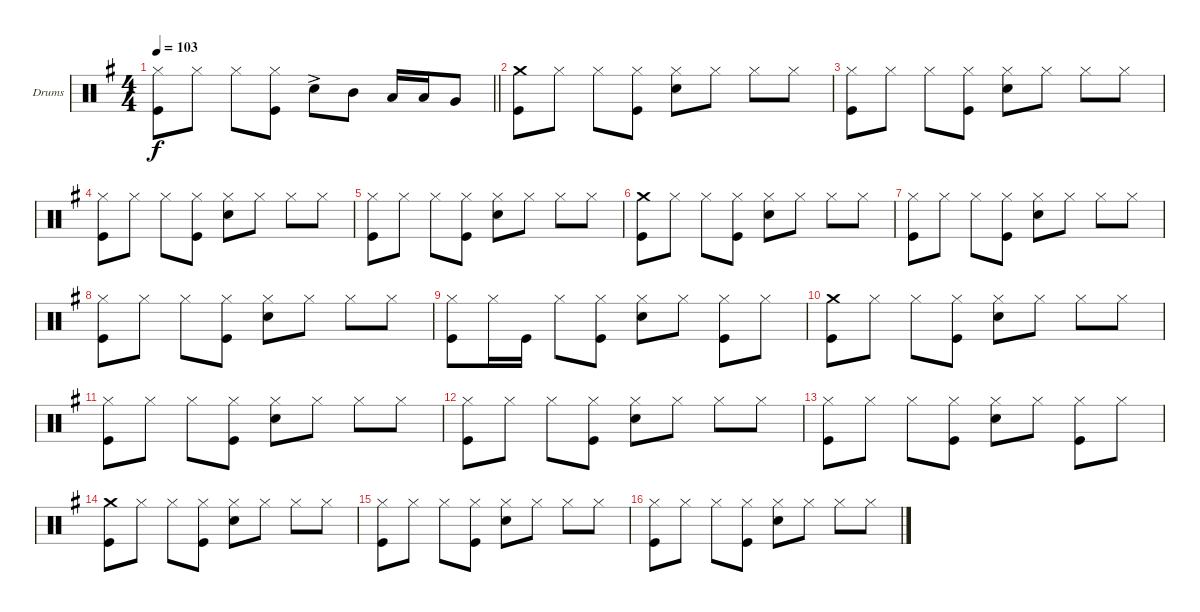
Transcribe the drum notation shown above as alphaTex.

\bracketExtendMode groupsimilarinstruments
\firstSystemTrackNameOrientation horizontal
\otherSystemsTrackNameOrientation horizontal
\track ("Drumkit" "Drums") {instrument percussion}
\staff {score}
\articulation defaults
\ts (4 4)
\tempo 103
\clef neutral
\barLineRight lightlight
\ks eminor
("Hi-Hat (closed)" "Kick (hit)").8{dy f} "Hi-Hat (closed)".8 "Hi-Hat (closed)".8 ("Hi-Hat (closed)" "Kick (hit)").8 "Snare (hit) 2"{ac}.8 "Mid Tom (hit)".8 "Low Tom (hit)".16 "Low Tom (hit)".16 "Very Low Tom (hit)".8 |
("Crash medium (hit)" "Kick (hit)").8 "Hi-Hat (closed)".8 "Hi-Hat (closed)".8 ("Hi-Hat (closed)" "Kick (hit)").8 ("Hi-Hat (closed)" "Snare (hit) 2").8 "Hi-Hat (closed)".8 "Hi-Hat (closed)".8 "Hi-Hat (closed)".8 |
("Hi-Hat (closed)" "Kick (hit)").8 "Hi-Hat (closed)".8 "Hi-Hat (closed)".8 ("Hi-Hat (closed)" "Kick (hit)").8 ("Hi-Hat (closed)" "Snare (hit) 2").8 "Hi-Hat (closed)".8 "Hi-Hat (closed)".8 "Hi-Hat (closed)".8 |
("Hi-Hat (closed)" "Kick (hit)").8 "Hi-Hat (closed)".8 "Hi-Hat (closed)".8 ("Hi-Hat (closed)" "Kick (hit)").8 ("Hi-Hat (closed)" "Snare (hit) 2").8 "Hi-Hat (closed)".8 "Hi-Hat (closed)".8 "Hi-Hat (closed)".8 |
("Hi-Hat (closed)" "Kick (hit)").8 "Hi-Hat (closed)".8 "Hi-Hat (closed)".8 ("Hi-Hat (closed)" "Kick (hit)").8 ("Hi-Hat (closed)" "Snare (hit) 2").8 "Hi-Hat (closed)".8 "Hi-Hat (closed)".8 "Hi-Hat (closed)".8 |
("Crash medium (hit)" "Kick (hit)").8 "Hi-Hat (closed)".8 "Hi-Hat (closed)".8 ("Hi-Hat (closed)" "Kick (hit)").8 ("Hi-Hat (closed)" "Snare (hit) 2").8 "Hi-Hat (closed)".8 "Hi-Hat (closed)".8 "Hi-Hat (closed)".8 |
("Hi-Hat (closed)" "Kick (hit)").8 "Hi-Hat (closed)".8 "Hi-Hat (closed)".8 ("Hi-Hat (closed)" "Kick (hit)").8 ("Hi-Hat (closed)" "Snare (hit) 2").8 "Hi-Hat (closed)".8 "Hi-Hat (closed)".8 "Hi-Hat (closed)".8 |
("Hi-Hat (closed)" "Kick (hit)").8 "Hi-Hat (closed)".8 "Hi-Hat (closed)".8 ("Hi-Hat (closed)" "Kick (hit)").8 ("Hi-Hat (closed)" "Snare (hit) 2").8 "Hi-Hat (closed)".8 "Hi-Hat (closed)".8 "Hi-Hat (closed)".8 |
("Hi-Hat (closed)" "Kick (hit)").8 "Hi-Hat (closed)".16 "Kick (hit)".16 "Hi-Hat (closed)".8 ("Hi-Hat (closed)" "Kick (hit)").8 ("Hi-Hat (closed)" "Snare (hit) 2").8 "Hi-Hat (closed)".8 ("Hi-Hat (closed)" "Kick (hit)").8 "Hi-Hat (closed)".8 |
("Crash medium (hit)" "Kick (hit)").8 "Hi-Hat (closed)".8 "Hi-Hat (closed)".8 ("Hi-Hat (closed)" "Kick (hit)").8 ("Hi-Hat (closed)" "Snare (hit) 2").8 "Hi-Hat (closed)".8 "Hi-Hat (closed)".8 "Hi-Hat (closed)".8 |
("Hi-Hat (closed)" "Kick (hit)").8 "Hi-Hat (closed)".8 "Hi-Hat (closed)".8 ("Hi-Hat (closed)" "Kick (hit)").8 ("Hi-Hat (closed)" "Snare (hit) 2").8 "Hi-Hat (closed)".8 "Hi-Hat (closed)".8 "Hi-Hat (closed)".8 |
("Hi-Hat (closed)" "Kick (hit)").8 "Hi-Hat (closed)".8 "Hi-Hat (closed)".8 ("Hi-Hat (closed)" "Kick (hit)").8 ("Hi-Hat (closed)" "Snare (hit) 2").8 "Hi-Hat (closed)".8 "Hi-Hat (closed)".8 "Hi-Hat (closed)".8 |
("Hi-Hat (closed)" "Kick (hit)").8 "Hi-Hat (closed)".8 "Hi-Hat (closed)".8 ("Hi-Hat (closed)" "Kick (hit)").8 ("Hi-Hat (closed)" "Snare (hit) 2").8 "Hi-Hat (closed)".8 ("Hi-Hat (closed)" "Kick (hit)").8 "Hi-Hat (closed)".8 |
("Crash medium (hit)" "Kick (hit)").8 "Hi-Hat (closed)".8 "Hi-Hat (closed)".8 ("Hi-Hat (closed)" "Kick (hit)").8 ("Hi-Hat (closed)" "Snare (hit) 2").8 "Hi-Hat (closed)".8 "Hi-Hat (closed)".8 "Hi-Hat (closed)".8 |
("Hi-Hat (closed)" "Kick (hit)").8 "Hi-Hat (closed)".8 "Hi-Hat (closed)".8 ("Hi-Hat (closed)" "Kick (hit)").8 ("Hi-Hat (closed)" "Snare (hit) 2").8 "Hi-Hat (closed)".8 "Hi-Hat (closed)".8 "Hi-Hat (closed)".8 |
("Hi-Hat (closed)" "Kick (hit)").8 "Hi-Hat (closed)".8 "Hi-Hat (closed)".8 ("Hi-Hat (closed)" "Kick (hit)").8 ("Hi-Hat (closed)" "Snare (hit) 2").8 "Hi-Hat (closed)".8 "Hi-Hat (closed)".8 "Hi-Hat (closed)".8
